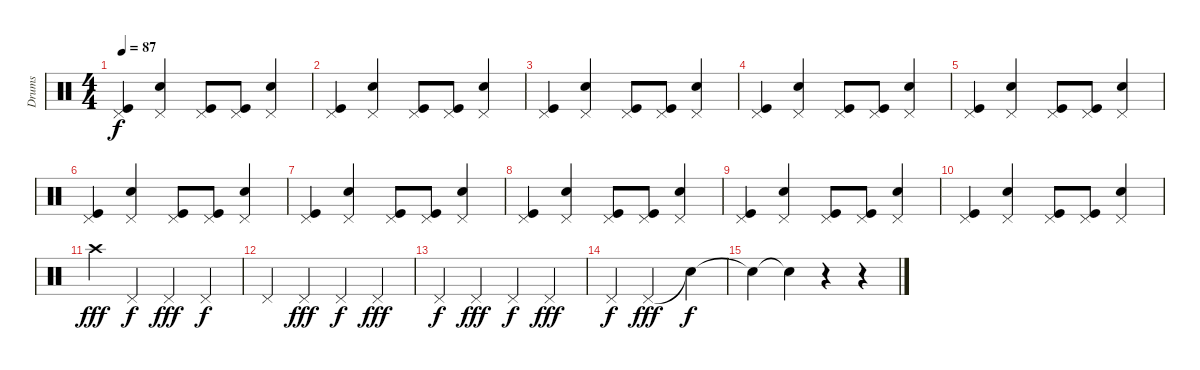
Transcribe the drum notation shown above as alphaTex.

\track ("Drums" "Drums") {instrument percussion}
\staff {score}
\articulation defaults
\ts (4 4)
\tempo 87
\clef neutral
\ks c
("Pedal Hi-Hat (hit)" "Kick (hit)").4{dy f} ("Pedal Hi-Hat (hit)" "Electric Snare (hit)").4 ("Pedal Hi-Hat (hit)" "Kick (hit)").8 ("Pedal Hi-Hat (hit)" "Kick (hit)").8 ("Pedal Hi-Hat (hit)" "Snare (hit) 2").4 |
("Pedal Hi-Hat (hit)" "Kick (hit)").4 ("Pedal Hi-Hat (hit)" "Electric Snare (hit)").4 ("Pedal Hi-Hat (hit)" "Kick (hit)").8 ("Pedal Hi-Hat (hit)" "Kick (hit)").8 ("Pedal Hi-Hat (hit)" "Snare (hit) 2").4 |
("Pedal Hi-Hat (hit)" "Kick (hit)").4 ("Pedal Hi-Hat (hit)" "Electric Snare (hit)").4 ("Pedal Hi-Hat (hit)" "Kick (hit)").8 ("Pedal Hi-Hat (hit)" "Kick (hit)").8 ("Pedal Hi-Hat (hit)" "Snare (hit) 2").4 |
("Pedal Hi-Hat (hit)" "Kick (hit)").4 ("Pedal Hi-Hat (hit)" "Electric Snare (hit)").4 ("Pedal Hi-Hat (hit)" "Kick (hit)").8 ("Pedal Hi-Hat (hit)" "Kick (hit)").8 ("Pedal Hi-Hat (hit)" "Snare (hit) 2").4 |
("Pedal Hi-Hat (hit)" "Kick (hit)").4 ("Pedal Hi-Hat (hit)" "Electric Snare (hit)").4 ("Pedal Hi-Hat (hit)" "Kick (hit)").8 ("Pedal Hi-Hat (hit)" "Kick (hit)").8 ("Pedal Hi-Hat (hit)" "Snare (hit) 2").4 |
("Pedal Hi-Hat (hit)" "Kick (hit)").4 ("Pedal Hi-Hat (hit)" "Electric Snare (hit)").4 ("Pedal Hi-Hat (hit)" "Kick (hit)").8 ("Pedal Hi-Hat (hit)" "Kick (hit)").8 ("Pedal Hi-Hat (hit)" "Snare (hit) 2").4 |
("Pedal Hi-Hat (hit)" "Kick (hit)").4 ("Pedal Hi-Hat (hit)" "Electric Snare (hit)").4 ("Pedal Hi-Hat (hit)" "Kick (hit)").8 ("Pedal Hi-Hat (hit)" "Kick (hit)").8 ("Pedal Hi-Hat (hit)" "Snare (hit) 2").4 |
("Pedal Hi-Hat (hit)" "Kick (hit)").4 ("Pedal Hi-Hat (hit)" "Electric Snare (hit)").4 ("Pedal Hi-Hat (hit)" "Kick (hit)").8 ("Pedal Hi-Hat (hit)" "Kick (hit)").8 ("Pedal Hi-Hat (hit)" "Snare (hit) 2").4 |
("Pedal Hi-Hat (hit)" "Kick (hit)").4 ("Pedal Hi-Hat (hit)" "Electric Snare (hit)").4 ("Pedal Hi-Hat (hit)" "Kick (hit)").8 ("Pedal Hi-Hat (hit)" "Kick (hit)").8 ("Pedal Hi-Hat (hit)" "Snare (hit) 2").4 |
("Pedal Hi-Hat (hit)" "Kick (hit)").4 ("Pedal Hi-Hat (hit)" "Electric Snare (hit)").4 ("Pedal Hi-Hat (hit)" "Kick (hit)").8 ("Pedal Hi-Hat (hit)" "Kick (hit)").8 ("Pedal Hi-Hat (hit)" "Snare (hit) 2").4 |
"Crash high (hit)".4{dy fff} "Pedal Hi-Hat (hit)".4{dy f} "Pedal Hi-Hat (hit)".4{dy fff} "Pedal Hi-Hat (hit)".4{dy f} |
"Pedal Hi-Hat (hit)".4 "Pedal Hi-Hat (hit)".4{dy fff} "Pedal Hi-Hat (hit)".4{dy f} "Pedal Hi-Hat (hit)".4{dy fff} |
"Pedal Hi-Hat (hit)".4{dy f} "Pedal Hi-Hat (hit)".4{dy fff} "Pedal Hi-Hat (hit)".4{dy f} "Pedal Hi-Hat (hit)".4{dy fff} |
"Pedal Hi-Hat (hit)".4{dy f} "Pedal Hi-Hat (hit)".2{dy fff} "Snare (hit)"{t}.4{dy f} |
"Snare (hit)"{t}.4 "Snare (hit)"{t}.4 r.4 r.4
